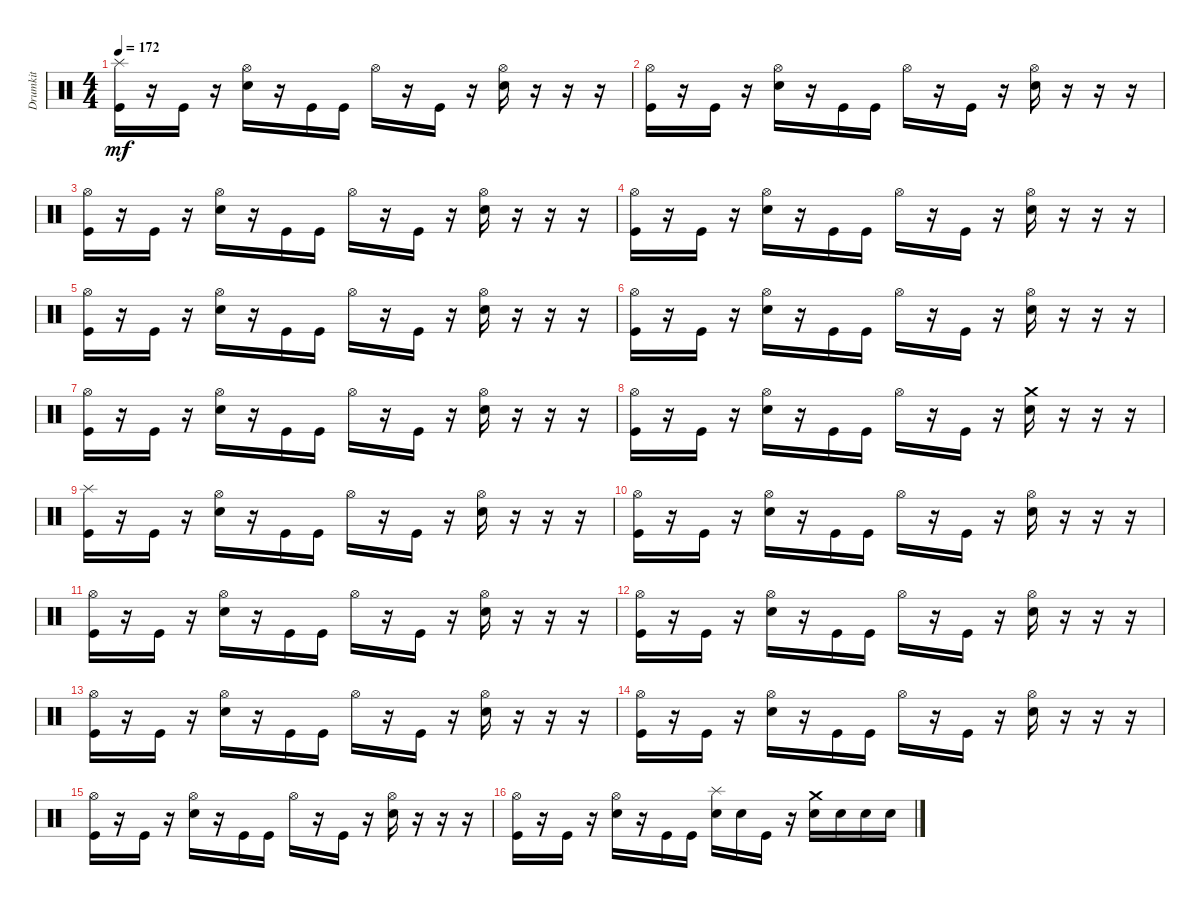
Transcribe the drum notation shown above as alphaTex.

\track ("Drumkit" "Drumkit") {instrument percussion}
\staff {score}
\articulation defaults
\ts (4 4)
\tempo 172
\clef neutral
\ks c
("Kick (hit)" "Splash (hit)").16{dy mf} r.16 "Kick (hit)".16 r.16 ("Hi-Hat (open)" "Snare (hit) 2").16 r.16 "Kick (hit)".16 "Kick (hit)".16 "Hi-Hat (open)".16 r.16 "Kick (hit)".16 r.16 ("Hi-Hat (open)" "Snare (hit) 2").16 r.16 r.16 r.16 |
("Hi-Hat (open)" "Kick (hit)").16 r.16 "Kick (hit)".16 r.16 ("Hi-Hat (open)" "Snare (hit) 2").16 r.16 "Kick (hit)".16 "Kick (hit)".16 "Hi-Hat (open)".16 r.16 "Kick (hit)".16 r.16 ("Hi-Hat (open)" "Snare (hit) 2").16 r.16 r.16 r.16 |
("Hi-Hat (open)" "Kick (hit)").16 r.16 "Kick (hit)".16 r.16 ("Hi-Hat (open)" "Snare (hit) 2").16 r.16 "Kick (hit)".16 "Kick (hit)".16 "Hi-Hat (open)".16 r.16 "Kick (hit)".16 r.16 ("Hi-Hat (open)" "Snare (hit) 2").16 r.16 r.16 r.16 |
("Hi-Hat (open)" "Kick (hit)").16 r.16 "Kick (hit)".16 r.16 ("Hi-Hat (open)" "Snare (hit) 2").16 r.16 "Kick (hit)".16 "Kick (hit)".16 "Hi-Hat (open)".16 r.16 "Kick (hit)".16 r.16 ("Hi-Hat (open)" "Snare (hit) 2").16 r.16 r.16 r.16 |
("Hi-Hat (open)" "Kick (hit)").16 r.16 "Kick (hit)".16 r.16 ("Hi-Hat (open)" "Snare (hit) 2").16 r.16 "Kick (hit)".16 "Kick (hit)".16 "Hi-Hat (open)".16 r.16 "Kick (hit)".16 r.16 ("Hi-Hat (open)" "Snare (hit) 2").16 r.16 r.16 r.16 |
("Hi-Hat (open)" "Kick (hit)").16 r.16 "Kick (hit)".16 r.16 ("Hi-Hat (open)" "Snare (hit) 2").16 r.16 "Kick (hit)".16 "Kick (hit)".16 "Hi-Hat (open)".16 r.16 "Kick (hit)".16 r.16 ("Hi-Hat (open)" "Snare (hit) 2").16 r.16 r.16 r.16 |
("Hi-Hat (open)" "Kick (hit)").16 r.16 "Kick (hit)".16 r.16 ("Hi-Hat (open)" "Snare (hit) 2").16 r.16 "Kick (hit)".16 "Kick (hit)".16 "Hi-Hat (open)".16 r.16 "Kick (hit)".16 r.16 ("Hi-Hat (open)" "Snare (hit) 2").16 r.16 r.16 r.16 |
("Hi-Hat (open)" "Kick (hit)").16 r.16 "Kick (hit)".16 r.16 ("Hi-Hat (open)" "Snare (hit) 2").16 r.16 "Kick (hit)".16 "Kick (hit)".16 "Hi-Hat (open)".16 r.16 "Kick (hit)".16 r.16 ("Snare (hit) 2" "Crash medium (hit)").16 r.16 r.16 r.16 |
("Kick (hit)" "Splash (hit)").16 r.16 "Kick (hit)".16 r.16 ("Hi-Hat (open)" "Snare (hit) 2").16 r.16 "Kick (hit)".16 "Kick (hit)".16 "Hi-Hat (open)".16 r.16 "Kick (hit)".16 r.16 ("Hi-Hat (open)" "Snare (hit) 2").16 r.16 r.16 r.16 |
("Hi-Hat (open)" "Kick (hit)").16 r.16 "Kick (hit)".16 r.16 ("Hi-Hat (open)" "Snare (hit) 2").16 r.16 "Kick (hit)".16 "Kick (hit)".16 "Hi-Hat (open)".16 r.16 "Kick (hit)".16 r.16 ("Hi-Hat (open)" "Snare (hit) 2").16 r.16 r.16 r.16 |
("Hi-Hat (open)" "Kick (hit)").16 r.16 "Kick (hit)".16 r.16 ("Hi-Hat (open)" "Snare (hit) 2").16 r.16 "Kick (hit)".16 "Kick (hit)".16 "Hi-Hat (open)".16 r.16 "Kick (hit)".16 r.16 ("Hi-Hat (open)" "Snare (hit) 2").16 r.16 r.16 r.16 |
("Hi-Hat (open)" "Kick (hit)").16 r.16 "Kick (hit)".16 r.16 ("Hi-Hat (open)" "Snare (hit) 2").16 r.16 "Kick (hit)".16 "Kick (hit)".16 "Hi-Hat (open)".16 r.16 "Kick (hit)".16 r.16 ("Hi-Hat (open)" "Snare (hit) 2").16 r.16 r.16 r.16 |
("Hi-Hat (open)" "Kick (hit)").16 r.16 "Kick (hit)".16 r.16 ("Hi-Hat (open)" "Snare (hit) 2").16 r.16 "Kick (hit)".16 "Kick (hit)".16 "Hi-Hat (open)".16 r.16 "Kick (hit)".16 r.16 ("Hi-Hat (open)" "Snare (hit) 2").16 r.16 r.16 r.16 |
("Hi-Hat (open)" "Kick (hit)").16 r.16 "Kick (hit)".16 r.16 ("Hi-Hat (open)" "Snare (hit) 2").16 r.16 "Kick (hit)".16 "Kick (hit)".16 "Hi-Hat (open)".16 r.16 "Kick (hit)".16 r.16 ("Hi-Hat (open)" "Snare (hit) 2").16 r.16 r.16 r.16 |
("Hi-Hat (open)" "Kick (hit)").16 r.16 "Kick (hit)".16 r.16 ("Hi-Hat (open)" "Snare (hit) 2").16 r.16 "Kick (hit)".16 "Kick (hit)".16 "Hi-Hat (open)".16 r.16 "Kick (hit)".16 r.16 ("Hi-Hat (open)" "Snare (hit) 2").16 r.16 r.16 r.16 |
("Hi-Hat (open)" "Kick (hit)").16 r.16 "Kick (hit)".16 r.16 ("Hi-Hat (open)" "Snare (hit) 2").16 r.16 "Kick (hit)".16 "Kick (hit)".16 ("Snare (hit) 2" "Splash (hit)").16 "Snare (hit) 2".16 "Kick (hit)".16 r.16 ("Snare (hit) 2" "Crash medium (hit)").16 "Snare (hit) 2".16 "Snare (hit) 2".16 "Snare (hit) 2".16
